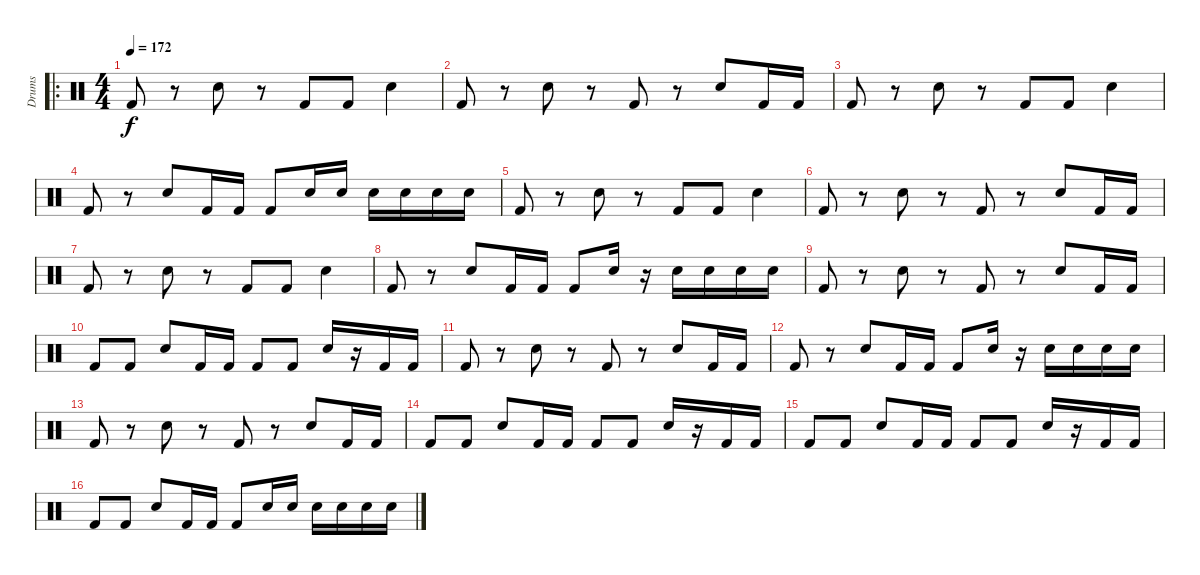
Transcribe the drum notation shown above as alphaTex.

\track ("Drums" "Drums") {instrument percussion}
\staff {score}
\articulation defaults
\ro
\ts (4 4)
\tempo 172
\clef neutral
\ks c "Kick (hit) 2".8{dy f}
r.8 "Snare (hit) 2".8 r.8 "Kick (hit) 2".8 "Kick (hit) 2".8 "Snare (hit) 2".4 |
"Kick (hit) 2".8 r.8 "Snare (hit) 2".8 r.8 "Kick (hit) 2".8 r.8 "Snare (hit) 2".8 "Kick (hit) 2".16 "Kick (hit) 2".16 |
"Kick (hit) 2".8 r.8 "Snare (hit) 2".8 r.8 "Kick (hit) 2".8 "Kick (hit) 2".8 "Snare (hit) 2".4 |
"Kick (hit) 2".8 r.8 "Snare (hit) 2".8 "Kick (hit) 2".16 "Kick (hit) 2".16 "Kick (hit) 2".8 "Snare (hit) 2".16 "Snare (hit) 2".16 "Snare (hit) 2".16 "Snare (hit) 2".16 "Snare (hit) 2".16 "Snare (hit) 2".16 |
"Kick (hit) 2".8 r.8 "Snare (hit) 2".8 r.8 "Kick (hit) 2".8 "Kick (hit) 2".8 "Snare (hit) 2".4 |
"Kick (hit) 2".8 r.8 "Snare (hit) 2".8 r.8 "Kick (hit) 2".8 r.8 "Snare (hit) 2".8 "Kick (hit) 2".16 "Kick (hit) 2".16 |
"Kick (hit) 2".8 r.8 "Snare (hit) 2".8 r.8 "Kick (hit) 2".8 "Kick (hit) 2".8 "Snare (hit) 2".4 |
"Kick (hit) 2".8 r.8 "Snare (hit) 2".8 "Kick (hit) 2".16 "Kick (hit) 2".16 "Kick (hit) 2".8 "Snare (hit) 2".16 r.16 "Snare (hit) 2".16 "Snare (hit) 2".16 "Snare (hit) 2".16 "Snare (hit) 2".16 |
"Kick (hit) 2".8 r.8 "Snare (hit) 2".8 r.8 "Kick (hit) 2".8 r.8 "Snare (hit) 2".8 "Kick (hit) 2".16 "Kick (hit) 2".16 |
"Kick (hit) 2".8 "Kick (hit) 2".8 "Snare (hit) 2".8 "Kick (hit) 2".16 "Kick (hit) 2".16 "Kick (hit) 2".8 "Kick (hit) 2".8 "Snare (hit) 2".16 r.16 "Kick (hit) 2".16 "Kick (hit) 2".16 |
"Kick (hit) 2".8 r.8 "Snare (hit) 2".8 r.8 "Kick (hit) 2".8 r.8 "Snare (hit) 2".8 "Kick (hit) 2".16 "Kick (hit) 2".16 |
"Kick (hit) 2".8 r.8 "Snare (hit) 2".8 "Kick (hit) 2".16 "Kick (hit) 2".16 "Kick (hit) 2".8 "Snare (hit) 2".16 r.16 "Snare (hit) 2".16 "Snare (hit) 2".16 "Snare (hit) 2".16 "Snare (hit) 2".16 |
"Kick (hit) 2".8 r.8 "Snare (hit) 2".8 r.8 "Kick (hit) 2".8 r.8 "Snare (hit) 2".8 "Kick (hit) 2".16 "Kick (hit) 2".16 |
"Kick (hit) 2".8 "Kick (hit) 2".8 "Snare (hit) 2".8 "Kick (hit) 2".16 "Kick (hit) 2".16 "Kick (hit) 2".8 "Kick (hit) 2".8 "Snare (hit) 2".16 r.16 "Kick (hit) 2".16 "Kick (hit) 2".16 |
"Kick (hit) 2".8 "Kick (hit) 2".8 "Snare (hit) 2".8 "Kick (hit) 2".16 "Kick (hit) 2".16 "Kick (hit) 2".8 "Kick (hit) 2".8 "Snare (hit) 2".16 r.16 "Kick (hit) 2".16 "Kick (hit) 2".16 |
"Kick (hit) 2".8 "Kick (hit) 2".8 "Snare (hit) 2".8 "Kick (hit) 2".16 "Kick (hit) 2".16 "Kick (hit) 2".8 "Snare (hit) 2".16 "Snare (hit) 2".16 "Snare (hit) 2".16 "Snare (hit) 2".16 "Snare (hit) 2".16 "Snare (hit) 2".16
